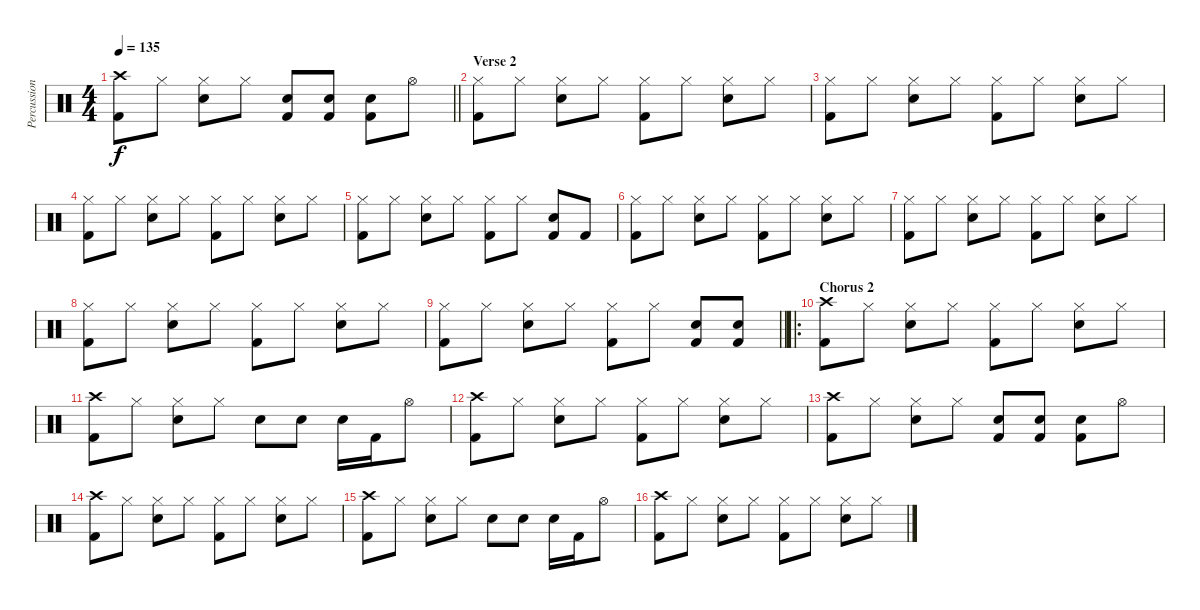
\track ("Percussion" "Percussion") {instrument percussion}
\staff {score}
\articulation defaults
\ts (4 4)
\tempo 135
\clef neutral
\barLineRight lightlight
\ks c
("Crash high (hit)" "Kick (hit) 2").8{dy f} "Hi-Hat (closed)".8 ("Hi-Hat (closed)" "Electric Snare (hit)").8 "Hi-Hat (closed)".8 ("Electric Snare (hit)" "Kick (hit) 2").8 ("Electric Snare (hit)" "Kick (hit) 2").8 ("Electric Snare (hit)" "Kick (hit) 2").8 "Hi-Hat (open)".8 |
\section ("" "Verse 2")
("Hi-Hat (closed)" "Kick (hit) 2").8 "Hi-Hat (closed)".8 ("Hi-Hat (closed)" "Electric Snare (hit)").8 "Hi-Hat (closed)".8 ("Hi-Hat (closed)" "Kick (hit) 2").8 "Hi-Hat (closed)".8 ("Hi-Hat (closed)" "Electric Snare (hit)").8 "Hi-Hat (closed)".8 |
("Hi-Hat (closed)" "Kick (hit) 2").8 "Hi-Hat (closed)".8 ("Hi-Hat (closed)" "Electric Snare (hit)").8 "Hi-Hat (closed)".8 ("Hi-Hat (closed)" "Kick (hit) 2").8 "Hi-Hat (closed)".8 ("Hi-Hat (closed)" "Electric Snare (hit)").8 "Hi-Hat (closed)".8 |
("Hi-Hat (closed)" "Kick (hit) 2").8 "Hi-Hat (closed)".8 ("Hi-Hat (closed)" "Electric Snare (hit)").8 "Hi-Hat (closed)".8 ("Hi-Hat (closed)" "Kick (hit) 2").8 "Hi-Hat (closed)".8 ("Hi-Hat (closed)" "Electric Snare (hit)").8 "Hi-Hat (closed)".8 |
("Hi-Hat (closed)" "Kick (hit) 2").8 "Hi-Hat (closed)".8 ("Hi-Hat (closed)" "Electric Snare (hit)").8 "Hi-Hat (closed)".8 ("Hi-Hat (closed)" "Kick (hit) 2").8 "Hi-Hat (closed)".8 ("Electric Snare (hit)" "Kick (hit) 2").8 "Kick (hit) 2".8 |
("Hi-Hat (closed)" "Kick (hit) 2").8 "Hi-Hat (closed)".8 ("Hi-Hat (closed)" "Electric Snare (hit)").8 "Hi-Hat (closed)".8 ("Hi-Hat (closed)" "Kick (hit) 2").8 "Hi-Hat (closed)".8 ("Hi-Hat (closed)" "Electric Snare (hit)").8 "Hi-Hat (closed)".8 |
("Hi-Hat (closed)" "Kick (hit) 2").8 "Hi-Hat (closed)".8 ("Hi-Hat (closed)" "Electric Snare (hit)").8 "Hi-Hat (closed)".8 ("Hi-Hat (closed)" "Kick (hit) 2").8 "Hi-Hat (closed)".8 ("Hi-Hat (closed)" "Electric Snare (hit)").8 "Hi-Hat (closed)".8 |
("Hi-Hat (closed)" "Kick (hit) 2").8 "Hi-Hat (closed)".8 ("Hi-Hat (closed)" "Electric Snare (hit)").8 "Hi-Hat (closed)".8 ("Hi-Hat (closed)" "Kick (hit) 2").8 "Hi-Hat (closed)".8 ("Hi-Hat (closed)" "Electric Snare (hit)").8 "Hi-Hat (closed)".8 |
\barLineRight lightlight
("Hi-Hat (closed)" "Kick (hit) 2").8 "Hi-Hat (closed)".8 ("Hi-Hat (closed)" "Electric Snare (hit)").8 "Hi-Hat (closed)".8 ("Hi-Hat (closed)" "Kick (hit) 2").8 "Hi-Hat (closed)".8 ("Electric Snare (hit)" "Kick (hit) 2").8 ("Electric Snare (hit)" "Kick (hit) 2").8 |
\ro
\section ("" "Chorus 2")
("Crash high (hit)" "Kick (hit) 2").8 "Hi-Hat (closed)".8 ("Hi-Hat (closed)" "Electric Snare (hit)").8 "Hi-Hat (closed)".8 ("Hi-Hat (closed)" "Kick (hit) 2").8 "Hi-Hat (closed)".8 ("Hi-Hat (closed)" "Electric Snare (hit)").8 "Hi-Hat (closed)".8 |
("Crash high (hit)" "Kick (hit) 2").8 "Hi-Hat (closed)".8 ("Hi-Hat (closed)" "Electric Snare (hit)").8 "Hi-Hat (closed)".8 "Electric Snare (hit)".8 "Electric Snare (hit)".8 "Electric Snare (hit)".16 "Kick (hit) 2".16 "Hi-Hat (open)".8 |
("Crash high (hit)" "Kick (hit) 2").8 "Hi-Hat (closed)".8 ("Hi-Hat (closed)" "Electric Snare (hit)").8 "Hi-Hat (closed)".8 ("Hi-Hat (closed)" "Kick (hit) 2").8 "Hi-Hat (closed)".8 ("Hi-Hat (closed)" "Electric Snare (hit)").8 "Hi-Hat (closed)".8 |
("Crash high (hit)" "Kick (hit) 2").8 "Hi-Hat (closed)".8 ("Hi-Hat (closed)" "Electric Snare (hit)").8 "Hi-Hat (closed)".8 ("Electric Snare (hit)" "Kick (hit) 2").8 ("Electric Snare (hit)" "Kick (hit) 2").8 ("Electric Snare (hit)" "Kick (hit) 2").8 "Hi-Hat (open)".8 |
("Crash high (hit)" "Kick (hit) 2").8 "Hi-Hat (closed)".8 ("Hi-Hat (closed)" "Electric Snare (hit)").8 "Hi-Hat (closed)".8 ("Hi-Hat (closed)" "Kick (hit) 2").8 "Hi-Hat (closed)".8 ("Hi-Hat (closed)" "Electric Snare (hit)").8 "Hi-Hat (closed)".8 |
("Crash high (hit)" "Kick (hit) 2").8 "Hi-Hat (closed)".8 ("Hi-Hat (closed)" "Electric Snare (hit)").8 "Hi-Hat (closed)".8 "Electric Snare (hit)".8 "Electric Snare (hit)".8 "Electric Snare (hit)".16 "Kick (hit) 2".16 "Hi-Hat (open)".8 |
("Crash high (hit)" "Kick (hit) 2").8 "Hi-Hat (closed)".8 ("Hi-Hat (closed)" "Electric Snare (hit)").8 "Hi-Hat (closed)".8 ("Hi-Hat (closed)" "Kick (hit) 2").8 "Hi-Hat (closed)".8 ("Hi-Hat (closed)" "Electric Snare (hit)").8 "Hi-Hat (closed)".8
